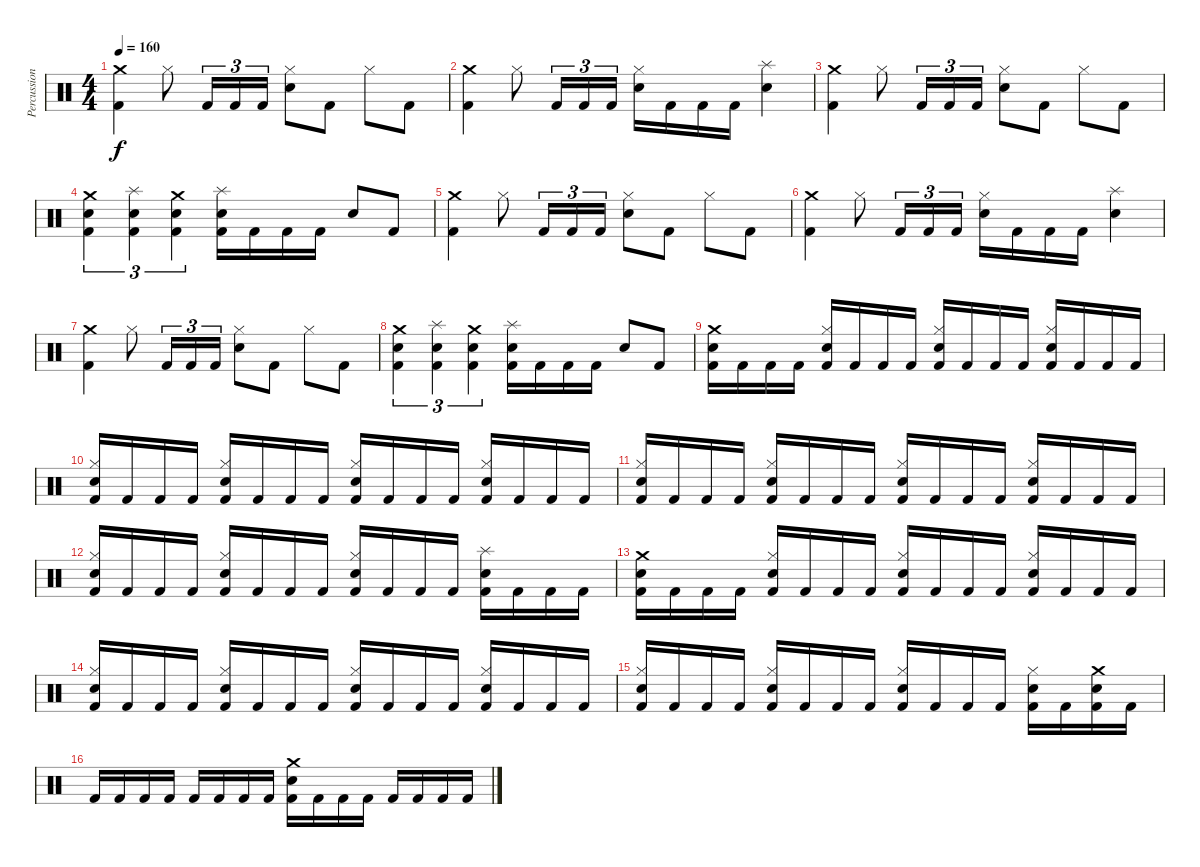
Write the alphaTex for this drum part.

\track ("Percussion" "Percussion") {instrument percussion}
\staff {score}
\articulation defaults
\ts (4 4)
\tempo 160
\clef neutral
\ks c
("Crash medium (hit)" "Kick (hit) 2").4{dy f} "Hi-Hat (closed)".8 "Kick (hit) 2".16{tu (3 2)} "Kick (hit) 2".16{tu (3 2)} "Kick (hit) 2".16{tu (3 2)} ("Hi-Hat (closed)" "Electric Snare (hit)").8 "Kick (hit) 2".8 "Hi-Hat (closed)".8 "Kick (hit) 2".8 |
("Crash medium (hit)" "Kick (hit) 2").4 "Hi-Hat (closed)".8 "Kick (hit) 2".16{tu (3 2)} "Kick (hit) 2".16{tu (3 2)} "Kick (hit) 2".16{tu (3 2)} ("Hi-Hat (closed)" "Electric Snare (hit)").16 "Kick (hit) 2".16 "Kick (hit) 2".16 "Kick (hit) 2".16 ("Splash (hit)" "Electric Snare (hit)").4 |
("Crash medium (hit)" "Kick (hit) 2").4 "Hi-Hat (closed)".8 "Kick (hit) 2".16{tu (3 2)} "Kick (hit) 2".16{tu (3 2)} "Kick (hit) 2".16{tu (3 2)} ("Hi-Hat (closed)" "Electric Snare (hit)").8 "Kick (hit) 2".8 "Hi-Hat (closed)".8 "Kick (hit) 2".8 |
("Crash medium (hit)" "Electric Snare (hit)" "Kick (hit) 2").4{tu (3 2)} ("Splash (hit)" "Electric Snare (hit)" "Kick (hit) 2").4{tu (3 2)} ("Crash medium (hit)" "Electric Snare (hit)" "Kick (hit) 2").4{tu (3 2)} ("Splash (hit)" "Electric Snare (hit)" "Kick (hit) 2").16 "Kick (hit) 2".16 "Kick (hit) 2".16 "Kick (hit) 2".16 "Electric Snare (hit)".8 "Kick (hit) 2".8 |
("Crash medium (hit)" "Kick (hit) 2").4 "Hi-Hat (closed)".8 "Kick (hit) 2".16{tu (3 2)} "Kick (hit) 2".16{tu (3 2)} "Kick (hit) 2".16{tu (3 2)} ("Hi-Hat (closed)" "Electric Snare (hit)").8 "Kick (hit) 2".8 "Hi-Hat (closed)".8 "Kick (hit) 2".8 |
("Crash medium (hit)" "Kick (hit) 2").4 "Hi-Hat (closed)".8 "Kick (hit) 2".16{tu (3 2)} "Kick (hit) 2".16{tu (3 2)} "Kick (hit) 2".16{tu (3 2)} ("Hi-Hat (closed)" "Electric Snare (hit)").16 "Kick (hit) 2".16 "Kick (hit) 2".16 "Kick (hit) 2".16 ("Splash (hit)" "Electric Snare (hit)").4 |
("Crash medium (hit)" "Kick (hit) 2").4 "Hi-Hat (closed)".8 "Kick (hit) 2".16{tu (3 2)} "Kick (hit) 2".16{tu (3 2)} "Kick (hit) 2".16{tu (3 2)} ("Hi-Hat (closed)" "Electric Snare (hit)").8 "Kick (hit) 2".8 "Hi-Hat (closed)".8 "Kick (hit) 2".8 |
("Crash medium (hit)" "Electric Snare (hit)" "Kick (hit) 2").4{tu (3 2)} ("Splash (hit)" "Electric Snare (hit)" "Kick (hit) 2").4{tu (3 2)} ("Crash medium (hit)" "Electric Snare (hit)" "Kick (hit) 2").4{tu (3 2)} ("Splash (hit)" "Electric Snare (hit)" "Kick (hit) 2").16 "Kick (hit) 2".16 "Kick (hit) 2".16 "Kick (hit) 2".16 "Electric Snare (hit)".8 "Kick (hit) 2".8 |
("Crash medium (hit)" "Electric Snare (hit)" "Kick (hit) 2").16 "Kick (hit) 2".16 "Kick (hit) 2".16 "Kick (hit) 2".16 ("Hi-Hat (closed)" "Electric Snare (hit)" "Kick (hit) 2").16 "Kick (hit) 2".16 "Kick (hit) 2".16 "Kick (hit) 2".16 ("Hi-Hat (closed)" "Electric Snare (hit)" "Kick (hit) 2").16 "Kick (hit) 2".16 "Kick (hit) 2".16 "Kick (hit) 2".16 ("Hi-Hat (closed)" "Electric Snare (hit)" "Kick (hit) 2").16 "Kick (hit) 2".16 "Kick (hit) 2".16 "Kick (hit) 2".16 |
("Hi-Hat (closed)" "Electric Snare (hit)" "Kick (hit) 2").16 "Kick (hit) 2".16 "Kick (hit) 2".16 "Kick (hit) 2".16 ("Hi-Hat (closed)" "Electric Snare (hit)" "Kick (hit) 2").16 "Kick (hit) 2".16 "Kick (hit) 2".16 "Kick (hit) 2".16 ("Hi-Hat (closed)" "Electric Snare (hit)" "Kick (hit) 2").16 "Kick (hit) 2".16 "Kick (hit) 2".16 "Kick (hit) 2".16 ("Hi-Hat (closed)" "Electric Snare (hit)" "Kick (hit) 2").16 "Kick (hit) 2".16 "Kick (hit) 2".16 "Kick (hit) 2".16 |
("Hi-Hat (closed)" "Electric Snare (hit)" "Kick (hit) 2").16 "Kick (hit) 2".16 "Kick (hit) 2".16 "Kick (hit) 2".16 ("Hi-Hat (closed)" "Electric Snare (hit)" "Kick (hit) 2").16 "Kick (hit) 2".16 "Kick (hit) 2".16 "Kick (hit) 2".16 ("Hi-Hat (closed)" "Electric Snare (hit)" "Kick (hit) 2").16 "Kick (hit) 2".16 "Kick (hit) 2".16 "Kick (hit) 2".16 ("Hi-Hat (closed)" "Electric Snare (hit)" "Kick (hit) 2").16 "Kick (hit) 2".16 "Kick (hit) 2".16 "Kick (hit) 2".16 |
("Hi-Hat (closed)" "Electric Snare (hit)" "Kick (hit) 2").16 "Kick (hit) 2".16 "Kick (hit) 2".16 "Kick (hit) 2".16 ("Hi-Hat (closed)" "Electric Snare (hit)" "Kick (hit) 2").16 "Kick (hit) 2".16 "Kick (hit) 2".16 "Kick (hit) 2".16 ("Hi-Hat (closed)" "Electric Snare (hit)" "Kick (hit) 2").16 "Kick (hit) 2".16 "Kick (hit) 2".16 "Kick (hit) 2".16 ("Splash (hit)" "Electric Snare (hit)" "Kick (hit) 2").16 "Kick (hit) 2".16 "Kick (hit) 2".16 "Kick (hit) 2".16 |
("Crash medium (hit)" "Electric Snare (hit)" "Kick (hit) 2").16 "Kick (hit) 2".16 "Kick (hit) 2".16 "Kick (hit) 2".16 ("Hi-Hat (closed)" "Electric Snare (hit)" "Kick (hit) 2").16 "Kick (hit) 2".16 "Kick (hit) 2".16 "Kick (hit) 2".16 ("Hi-Hat (closed)" "Electric Snare (hit)" "Kick (hit) 2").16 "Kick (hit) 2".16 "Kick (hit) 2".16 "Kick (hit) 2".16 ("Hi-Hat (closed)" "Electric Snare (hit)" "Kick (hit) 2").16 "Kick (hit) 2".16 "Kick (hit) 2".16 "Kick (hit) 2".16 |
("Hi-Hat (closed)" "Electric Snare (hit)" "Kick (hit) 2").16 "Kick (hit) 2".16 "Kick (hit) 2".16 "Kick (hit) 2".16 ("Hi-Hat (closed)" "Electric Snare (hit)" "Kick (hit) 2").16 "Kick (hit) 2".16 "Kick (hit) 2".16 "Kick (hit) 2".16 ("Hi-Hat (closed)" "Electric Snare (hit)" "Kick (hit) 2").16 "Kick (hit) 2".16 "Kick (hit) 2".16 "Kick (hit) 2".16 ("Hi-Hat (closed)" "Electric Snare (hit)" "Kick (hit) 2").16 "Kick (hit) 2".16 "Kick (hit) 2".16 "Kick (hit) 2".16 |
("Hi-Hat (closed)" "Electric Snare (hit)" "Kick (hit) 2").16 "Kick (hit) 2".16 "Kick (hit) 2".16 "Kick (hit) 2".16 ("Hi-Hat (closed)" "Electric Snare (hit)" "Kick (hit) 2").16 "Kick (hit) 2".16 "Kick (hit) 2".16 "Kick (hit) 2".16 ("Hi-Hat (closed)" "Electric Snare (hit)" "Kick (hit) 2").16 "Kick (hit) 2".16 "Kick (hit) 2".16 "Kick (hit) 2".16 ("Hi-Hat (closed)" "Electric Snare (hit)" "Kick (hit) 2").16 "Kick (hit) 2".16 ("Crash medium (hit)" "Electric Snare (hit)" "Kick (hit) 2").16 "Kick (hit) 2".16 |
"Kick (hit) 2".16 "Kick (hit) 2".16 "Kick (hit) 2".16 "Kick (hit) 2".16 "Kick (hit) 2".16 "Kick (hit) 2".16 "Kick (hit) 2".16 "Kick (hit) 2".16 ("Crash medium (hit)" "Electric Snare (hit)" "Kick (hit) 2").16 "Kick (hit) 2".16 "Kick (hit) 2".16 "Kick (hit) 2".16 "Kick (hit) 2".16 "Kick (hit) 2".16 "Kick (hit) 2".16 "Kick (hit) 2".16
